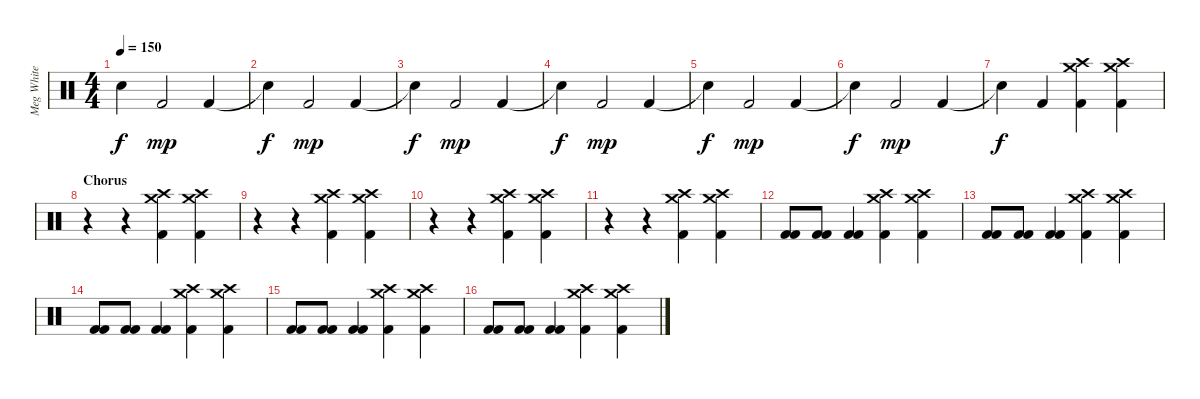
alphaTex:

\track ("Meg White" "Meg White") {instrument percussion}
\staff {score}
\articulation defaults
\ts (4 4)
\tempo 150
\clef neutral
\ks c "Snare (hit)"{t}.4{dy f} "Kick (hit) 2".2{dy mp} "Kick (hit) 2".4
|
"Snare (hit)"{t}.4{dy f} "Kick (hit) 2".2{dy mp} "Kick (hit) 2".4 |
"Snare (hit)"{t}.4{dy f} "Kick (hit) 2".2{dy mp} "Kick (hit) 2".4 |
"Snare (hit)"{t}.4{dy f} "Kick (hit) 2".2{dy mp} "Kick (hit) 2".4 |
"Snare (hit)"{t}.4{dy f} "Kick (hit) 2".2{dy mp} "Kick (hit) 2".4 |
"Snare (hit)"{t}.4{dy f} "Kick (hit) 2".2{dy mp} "Kick (hit) 2".4 |
"Snare (hit)"{t}.4{dy f} "Kick (hit) 2".4 ("Crash high (hit)" "Crash medium (hit)" "Kick (hit) 2").4 ("Crash high (hit)" "Crash medium (hit)" "Kick (hit) 2").4 |
\section ("" "Chorus")
r.4 r.4 ("Crash high (hit)" "Crash medium (hit)" "Kick (hit) 2").4 ("Crash high (hit)" "Crash medium (hit)" "Kick (hit) 2").4 |
r.4 r.4 ("Crash high (hit)" "Crash medium (hit)" "Kick (hit) 2").4 ("Crash high (hit)" "Crash medium (hit)" "Kick (hit) 2").4 |
r.4 r.4 ("Crash high (hit)" "Crash medium (hit)" "Kick (hit) 2").4 ("Crash high (hit)" "Crash medium (hit)" "Kick (hit) 2").4 |
r.4 r.4 ("Crash high (hit)" "Crash medium (hit)" "Kick (hit) 2").4 ("Crash high (hit)" "Crash medium (hit)" "Kick (hit) 2").4 |
("Kick (hit) 2" "Kick (hit) 2").8 ("Kick (hit) 2" "Kick (hit) 2").8 ("Kick (hit) 2" "Kick (hit) 2").4 ("Crash high (hit)" "Crash medium (hit)" "Kick (hit) 2").4 ("Crash high (hit)" "Crash medium (hit)" "Kick (hit) 2").4 |
("Kick (hit) 2" "Kick (hit) 2").8 ("Kick (hit) 2" "Kick (hit) 2").8 ("Kick (hit) 2" "Kick (hit) 2").4 ("Crash high (hit)" "Crash medium (hit)" "Kick (hit) 2").4 ("Crash high (hit)" "Crash medium (hit)" "Kick (hit) 2").4 |
("Kick (hit) 2" "Kick (hit) 2").8 ("Kick (hit) 2" "Kick (hit) 2").8 ("Kick (hit) 2" "Kick (hit) 2").4 ("Crash high (hit)" "Crash medium (hit)" "Kick (hit) 2").4 ("Crash high (hit)" "Crash medium (hit)" "Kick (hit) 2").4 |
("Kick (hit) 2" "Kick (hit) 2").8 ("Kick (hit) 2" "Kick (hit) 2").8 ("Kick (hit) 2" "Kick (hit) 2").4 ("Crash high (hit)" "Crash medium (hit)" "Kick (hit) 2").4 ("Crash high (hit)" "Crash medium (hit)" "Kick (hit) 2").4 |
("Kick (hit) 2" "Kick (hit) 2").8 ("Kick (hit) 2" "Kick (hit) 2").8 ("Kick (hit) 2" "Kick (hit) 2").4 ("Crash high (hit)" "Crash medium (hit)" "Kick (hit) 2").4 ("Crash high (hit)" "Crash medium (hit)" "Kick (hit) 2").4
